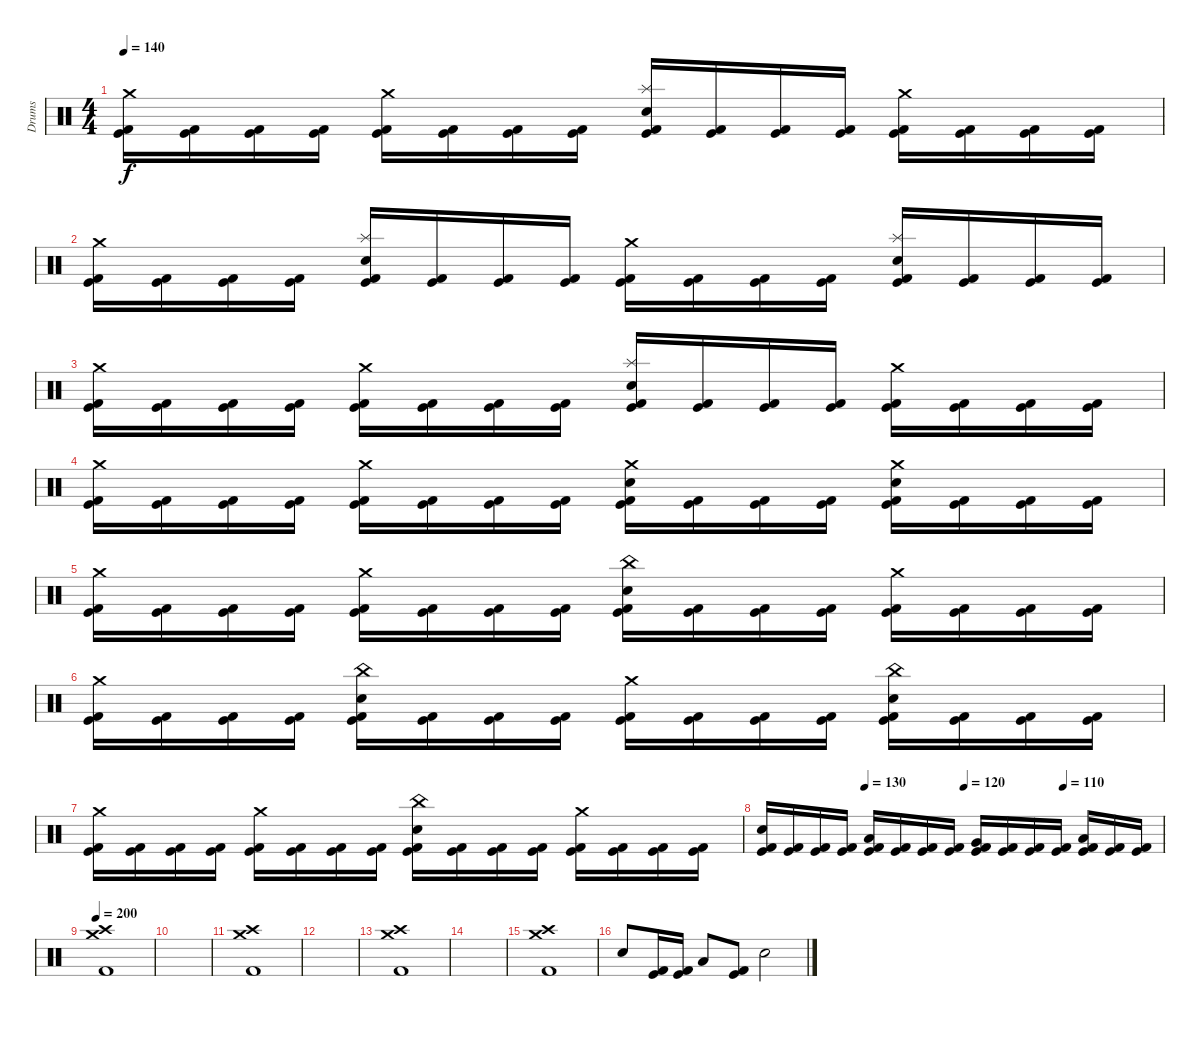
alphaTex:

\track ("Drums" "Drums") {instrument percussion}
\staff {score}
\articulation defaults
\ts (4 4)
\tempo 140
\clef neutral
\ks c
("Crash medium (hit)" "Kick (hit)" "Kick (hit) 2").16{dy f} ("Kick (hit)" "Kick (hit) 2").16 ("Kick (hit)" "Kick (hit) 2").16 ("Kick (hit)" "Kick (hit) 2").16 ("Crash medium (hit)" "Kick (hit)" "Kick (hit) 2").16 ("Kick (hit)" "Kick (hit) 2").16 ("Kick (hit)" "Kick (hit) 2").16 ("Kick (hit)" "Kick (hit) 2").16 ("Splash (hit)" "Electric Snare (hit)" "Kick (hit)" "Kick (hit) 2").16 ("Kick (hit)" "Kick (hit) 2").16 ("Kick (hit)" "Kick (hit) 2").16 ("Kick (hit)" "Kick (hit) 2").16 ("Crash medium (hit)" "Kick (hit)" "Kick (hit) 2").16 ("Kick (hit)" "Kick (hit) 2").16 ("Kick (hit)" "Kick (hit) 2").16 ("Kick (hit)" "Kick (hit) 2").16 |
("Crash medium (hit)" "Kick (hit)" "Kick (hit) 2").16 ("Kick (hit)" "Kick (hit) 2").16 ("Kick (hit)" "Kick (hit) 2").16 ("Kick (hit)" "Kick (hit) 2").16 ("Splash (hit)" "Electric Snare (hit)" "Kick (hit)" "Kick (hit) 2").16 ("Kick (hit)" "Kick (hit) 2").16 ("Kick (hit)" "Kick (hit) 2").16 ("Kick (hit)" "Kick (hit) 2").16 ("Crash medium (hit)" "Kick (hit)" "Kick (hit) 2").16 ("Kick (hit)" "Kick (hit) 2").16 ("Kick (hit)" "Kick (hit) 2").16 ("Kick (hit)" "Kick (hit) 2").16 ("Splash (hit)" "Electric Snare (hit)" "Kick (hit)" "Kick (hit) 2").16 ("Kick (hit)" "Kick (hit) 2").16 ("Kick (hit)" "Kick (hit) 2").16 ("Kick (hit)" "Kick (hit) 2").16 |
("Crash medium (hit)" "Kick (hit)" "Kick (hit) 2").16 ("Kick (hit)" "Kick (hit) 2").16 ("Kick (hit)" "Kick (hit) 2").16 ("Kick (hit)" "Kick (hit) 2").16 ("Crash medium (hit)" "Kick (hit)" "Kick (hit) 2").16 ("Kick (hit)" "Kick (hit) 2").16 ("Kick (hit)" "Kick (hit) 2").16 ("Kick (hit)" "Kick (hit) 2").16 ("Splash (hit)" "Electric Snare (hit)" "Kick (hit)" "Kick (hit) 2").16 ("Kick (hit)" "Kick (hit) 2").16 ("Kick (hit)" "Kick (hit) 2").16 ("Kick (hit)" "Kick (hit) 2").16 ("Crash medium (hit)" "Kick (hit)" "Kick (hit) 2").16 ("Kick (hit)" "Kick (hit) 2").16 ("Kick (hit)" "Kick (hit) 2").16 ("Kick (hit)" "Kick (hit) 2").16 |
("Crash medium (hit)" "Kick (hit)" "Kick (hit) 2").16 ("Kick (hit)" "Kick (hit) 2").16 ("Kick (hit)" "Kick (hit) 2").16 ("Kick (hit)" "Kick (hit) 2").16 ("Crash medium (hit)" "Kick (hit)" "Kick (hit) 2").16 ("Kick (hit)" "Kick (hit) 2").16 ("Kick (hit)" "Kick (hit) 2").16 ("Kick (hit)" "Kick (hit) 2").16 ("Crash medium (hit)" "Electric Snare (hit)" "Kick (hit)" "Kick (hit) 2").16 ("Kick (hit)" "Kick (hit) 2").16 ("Kick (hit)" "Kick (hit) 2").16 ("Kick (hit)" "Kick (hit) 2").16 ("Crash medium (hit)" "Electric Snare (hit)" "Kick (hit)" "Kick (hit) 2").16 ("Kick (hit)" "Kick (hit) 2").16 ("Kick (hit)" "Kick (hit) 2").16 ("Kick (hit)" "Kick (hit) 2").16 |
("Crash medium (hit)" "Kick (hit)" "Kick (hit) 2").16 ("Kick (hit)" "Kick (hit) 2").16 ("Kick (hit)" "Kick (hit) 2").16 ("Kick (hit)" "Kick (hit) 2").16 ("Crash medium (hit)" "Kick (hit)" "Kick (hit) 2").16 ("Kick (hit)" "Kick (hit) 2").16 ("Kick (hit)" "Kick (hit) 2").16 ("Kick (hit)" "Kick (hit) 2").16 ("China (hit)" "Electric Snare (hit)" "Kick (hit)" "Kick (hit) 2").16 ("Kick (hit)" "Kick (hit) 2").16 ("Kick (hit)" "Kick (hit) 2").16 ("Kick (hit)" "Kick (hit) 2").16 ("Crash medium (hit)" "Kick (hit)" "Kick (hit) 2").16 ("Kick (hit)" "Kick (hit) 2").16 ("Kick (hit)" "Kick (hit) 2").16 ("Kick (hit)" "Kick (hit) 2").16 |
("Crash medium (hit)" "Kick (hit)" "Kick (hit) 2").16 ("Kick (hit)" "Kick (hit) 2").16 ("Kick (hit)" "Kick (hit) 2").16 ("Kick (hit)" "Kick (hit) 2").16 ("China (hit)" "Electric Snare (hit)" "Kick (hit)" "Kick (hit) 2").16 ("Kick (hit)" "Kick (hit) 2").16 ("Kick (hit)" "Kick (hit) 2").16 ("Kick (hit)" "Kick (hit) 2").16 ("Crash medium (hit)" "Kick (hit)" "Kick (hit) 2").16 ("Kick (hit)" "Kick (hit) 2").16 ("Kick (hit)" "Kick (hit) 2").16 ("Kick (hit)" "Kick (hit) 2").16 ("China (hit)" "Electric Snare (hit)" "Kick (hit)" "Kick (hit) 2").16 ("Kick (hit)" "Kick (hit) 2").16 ("Kick (hit)" "Kick (hit) 2").16 ("Kick (hit)" "Kick (hit) 2").16 |
("Crash medium (hit)" "Kick (hit)" "Kick (hit) 2").16 ("Kick (hit)" "Kick (hit) 2").16 ("Kick (hit)" "Kick (hit) 2").16 ("Kick (hit)" "Kick (hit) 2").16 ("Crash medium (hit)" "Kick (hit)" "Kick (hit) 2").16 ("Kick (hit)" "Kick (hit) 2").16 ("Kick (hit)" "Kick (hit) 2").16 ("Kick (hit)" "Kick (hit) 2").16 ("China (hit)" "Electric Snare (hit)" "Kick (hit)" "Kick (hit) 2").16 ("Kick (hit)" "Kick (hit) 2").16 ("Kick (hit)" "Kick (hit) 2").16 ("Kick (hit)" "Kick (hit) 2").16 ("Crash medium (hit)" "Kick (hit)" "Kick (hit) 2").16 ("Kick (hit)" "Kick (hit) 2").16 ("Kick (hit)" "Kick (hit) 2").16 ("Kick (hit)" "Kick (hit) 2").16 |
\tempo (130 0.25)
\tempo (120 0.5)
\tempo (110 0.75)
("Electric Snare (hit)" "Kick (hit)" "Kick (hit) 2").16 ("Kick (hit)" "Kick (hit) 2").16 ("Kick (hit)" "Kick (hit) 2").16 ("Kick (hit)" "Kick (hit) 2").16 ("Low Tom (hit)" "Kick (hit)" "Kick (hit) 2").16 ("Kick (hit)" "Kick (hit) 2").16 ("Kick (hit)" "Kick (hit) 2").16 ("Kick (hit)" "Kick (hit) 2").16 ("Very Low Tom (hit)" "Kick (hit)" "Kick (hit) 2").16 ("Kick (hit)" "Kick (hit) 2").16 ("Kick (hit)" "Kick (hit) 2").16 ("Kick (hit)" "Kick (hit) 2").16 ("Low Floor Tom (hit)" "Kick (hit)" "Kick (hit) 2").16 ("Kick (hit)" "Kick (hit) 2").16 ("Kick (hit)" "Kick (hit) 2").16 |
\tempo 200
("Crash high (hit)" "Crash medium (hit)" "Kick (hit) 2").1 |
|
("Crash high (hit)" "Crash medium (hit)" "Kick (hit) 2").1 |
|
("Crash high (hit)" "Crash medium (hit)" "Kick (hit) 2").1 |
|
("Crash high (hit)" "Crash medium (hit)" "Kick (hit) 2").1 |
"Electric Snare (hit)".8 ("Kick (hit)" "Kick (hit) 2").16 ("Kick (hit)" "Kick (hit) 2").16 "Low Tom (hit)".8 ("Kick (hit)" "Kick (hit) 2").8 "Electric Snare (hit)".2
